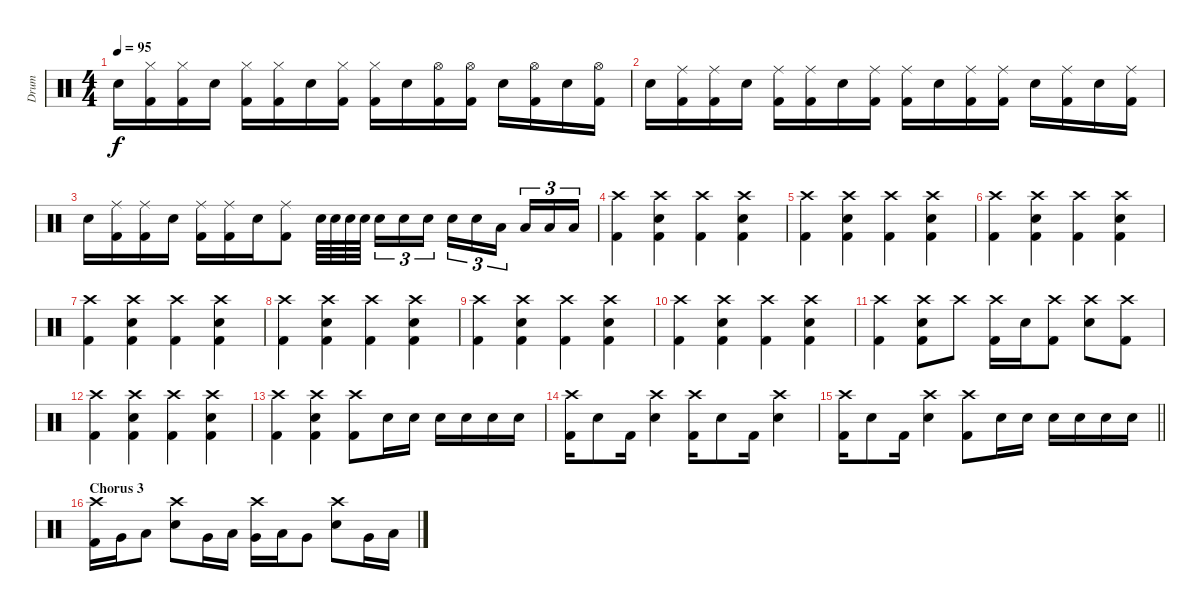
\track ("Drum" "Drum") {instrument percussion}
\staff {score}
\articulation defaults
\ts (4 4)
\tempo 95
\clef neutral
\ks c "Snare (hit) 2".16{dy f}
("Hi-Hat (closed)" "Kick (hit) 2").16 ("Hi-Hat (closed)" "Kick (hit) 2").16 "Snare (hit) 2".16 ("Hi-Hat (closed)" "Kick (hit) 2").16 ("Hi-Hat (closed)" "Kick (hit) 2").16 "Snare (hit) 2".16 ("Hi-Hat (closed)" "Kick (hit) 2").16 ("Hi-Hat (closed)" "Kick (hit) 2").16 "Snare (hit) 2".16 ("Hi-Hat (open)" "Kick (hit) 2").16 ("Hi-Hat (open)" "Kick (hit) 2").16 "Snare (hit) 2".16 ("Hi-Hat (open)" "Kick (hit) 2").16 "Snare (hit) 2".16 ("Hi-Hat (open)" "Kick (hit) 2").16 |
"Snare (hit) 2".16 ("Ride (middle)" "Kick (hit) 2").16 ("Ride (middle)" "Kick (hit) 2").16 "Snare (hit) 2".16 ("Ride (middle)" "Kick (hit) 2").16 ("Ride (middle)" "Kick (hit) 2").16 "Snare (hit) 2".16 ("Ride (middle)" "Kick (hit) 2").16 ("Ride (middle)" "Kick (hit) 2").16 "Snare (hit) 2".16 ("Ride (middle)" "Kick (hit) 2").16 ("Ride (middle)" "Kick (hit) 2").16 "Snare (hit) 2".16 ("Ride (middle)" "Kick (hit) 2").16 "Snare (hit) 2".16 ("Ride (middle)" "Kick (hit) 2").16 |
"Snare (hit) 2".16 ("Ride (middle)" "Kick (hit) 2").16 ("Ride (middle)" "Kick (hit) 2").16 "Snare (hit) 2".16 ("Ride (middle)" "Kick (hit) 2").16 ("Ride (middle)" "Kick (hit) 2").16 "Snare (hit) 2".16 ("Ride (middle)" "Kick (hit) 2").8 "Snare (hit) 2".64 "Snare (hit) 2".64 "Snare (hit) 2".64 "Snare (hit) 2".64{beam splitsecondary} "Snare (hit) 2".16{tu (3 2)} "Snare (hit) 2".16{tu (3 2)} "Snare (hit) 2".16{tu (3 2)} "Snare (hit) 2".16{tu (3 2)} "Snare (hit) 2".16{tu (3 2)} "Low Tom (hit)".16{tu (3 2) beam splitsecondary} "Low Tom (hit)".16{tu (3 2)} "Low Tom (hit)".16{tu (3 2)} "Low Tom (hit)".16{tu (3 2)} |
("Crash high (hit)" "Kick (hit) 2").4 ("Crash high (hit)" "Snare (hit) 2" "Kick (hit) 2").4 ("Crash high (hit)" "Kick (hit) 2").4 ("Crash high (hit)" "Snare (hit) 2" "Kick (hit) 2").4 |
("Crash high (hit)" "Kick (hit) 2").4 ("Crash high (hit)" "Snare (hit) 2" "Kick (hit) 2").4 ("Crash high (hit)" "Kick (hit) 2").4 ("Crash high (hit)" "Snare (hit) 2" "Kick (hit) 2").4 |
("Crash high (hit)" "Kick (hit) 2").4 ("Crash high (hit)" "Snare (hit) 2" "Kick (hit) 2").4 ("Crash high (hit)" "Kick (hit) 2").4 ("Crash high (hit)" "Snare (hit) 2" "Kick (hit) 2").4 |
("Crash high (hit)" "Kick (hit) 2").4 ("Crash high (hit)" "Snare (hit) 2" "Kick (hit) 2").4 ("Crash high (hit)" "Kick (hit) 2").4 ("Crash high (hit)" "Snare (hit) 2" "Kick (hit) 2").4 |
("Crash high (hit)" "Kick (hit) 2").4 ("Crash high (hit)" "Snare (hit) 2" "Kick (hit) 2").4 ("Crash high (hit)" "Kick (hit) 2").4 ("Crash high (hit)" "Snare (hit) 2" "Kick (hit) 2").4 |
("Crash high (hit)" "Kick (hit) 2").4 ("Crash high (hit)" "Snare (hit) 2" "Kick (hit) 2").4 ("Crash high (hit)" "Kick (hit) 2").4 ("Crash high (hit)" "Snare (hit) 2" "Kick (hit) 2").4 |
("Crash high (hit)" "Kick (hit) 2").4 ("Crash high (hit)" "Snare (hit) 2" "Kick (hit) 2").4 ("Crash high (hit)" "Kick (hit) 2").4 ("Crash high (hit)" "Snare (hit) 2" "Kick (hit) 2").4 |
("Crash high (hit)" "Kick (hit) 2").4 ("Crash high (hit)" "Snare (hit) 2" "Kick (hit) 2").8 "Crash high (hit)".8 ("Crash high (hit)" "Kick (hit) 2").16 "Snare (hit) 2".16 ("Crash high (hit)" "Kick (hit) 2").8 ("Crash high (hit)" "Snare (hit) 2").8 ("Crash high (hit)" "Kick (hit) 2").8 |
("Crash high (hit)" "Kick (hit) 2").4 ("Crash high (hit)" "Snare (hit) 2" "Kick (hit) 2").4 ("Crash high (hit)" "Kick (hit) 2").4 ("Crash high (hit)" "Snare (hit) 2" "Kick (hit) 2").4 |
("Crash high (hit)" "Kick (hit) 2").4 ("Crash high (hit)" "Snare (hit) 2" "Kick (hit) 2").4 ("Crash high (hit)" "Kick (hit) 2").8 "Snare (hit) 2".16 "Snare (hit) 2".16 "Snare (hit) 2".16 "Snare (hit) 2".16 "Snare (hit) 2".16 "Snare (hit) 2".16 |
("Crash high (hit)" "Kick (hit) 2").16 "Snare (hit) 2".8 "Kick (hit) 2".16 ("Crash high (hit)" "Snare (hit) 2").4 ("Crash high (hit)" "Kick (hit) 2").16 "Snare (hit) 2".8 "Kick (hit) 2".16 ("Crash high (hit)" "Snare (hit) 2").4 |
\barLineRight lightlight
("Crash high (hit)" "Kick (hit) 2").16 "Snare (hit) 2".8 "Kick (hit) 2".16 ("Crash high (hit)" "Snare (hit) 2").4 ("Crash high (hit)" "Kick (hit) 2").8 "Snare (hit) 2".16 "Snare (hit) 2".16 "Snare (hit) 2".16 "Snare (hit) 2".16 "Snare (hit) 2".16 "Snare (hit) 2".16 |
\section ("" "Chorus 3")
("Crash high (hit)" "Kick (hit) 2").16 "Very Low Tom (hit)".16 "Low Tom (hit)".8 ("Crash high (hit)" "Snare (hit) 2").8 "Very Low Tom (hit)".16 "Low Tom (hit)".16 ("Crash high (hit)" "Very Low Tom (hit)").16 "Low Tom (hit)".16 "Very Low Tom (hit)".8 ("Crash high (hit)" "Snare (hit) 2").8 "Very Low Tom (hit)".16 "Low Tom (hit)".16
